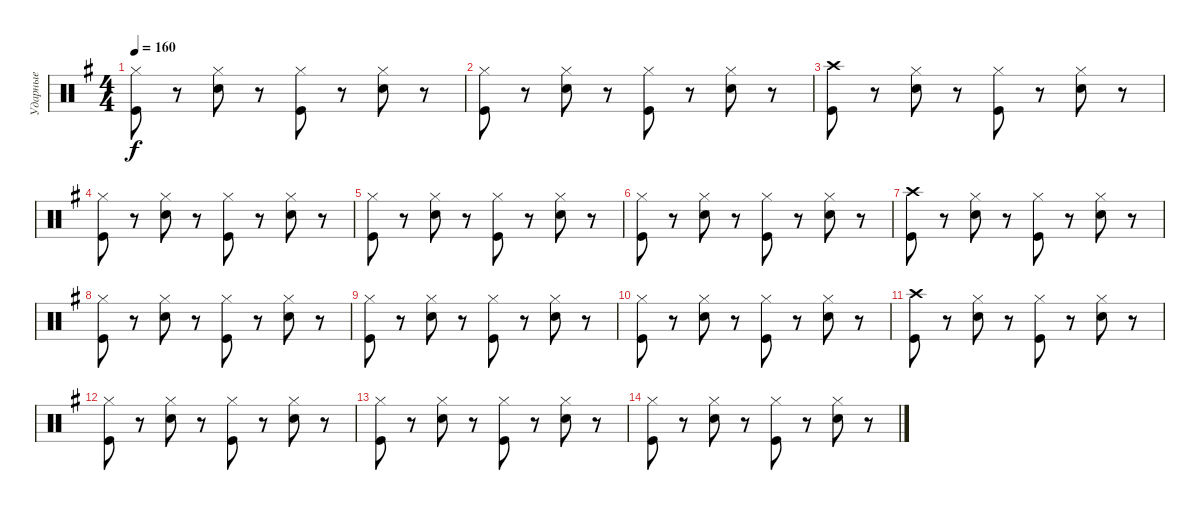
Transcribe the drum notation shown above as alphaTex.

\track ("Ударные" "Ударные") {instrument percussion}
\staff {score}
\articulation defaults
\ts (4 4)
\tempo 160
\clef neutral
\ks eminor
("Hi-Hat (closed)" "Kick (hit)").8{dy f} r.8 ("Hi-Hat (closed)" "Electric Snare (hit)").8 r.8 ("Hi-Hat (closed)" "Kick (hit)").8 r.8 ("Hi-Hat (closed)" "Electric Snare (hit)").8 r.8 |
("Hi-Hat (closed)" "Kick (hit)").8 r.8 ("Hi-Hat (closed)" "Electric Snare (hit)").8 r.8 ("Hi-Hat (closed)" "Kick (hit)").8 r.8 ("Hi-Hat (closed)" "Electric Snare (hit)").8 r.8 |
("Crash high (hit)" "Kick (hit)").8 r.8 ("Hi-Hat (closed)" "Electric Snare (hit)").8 r.8 ("Hi-Hat (closed)" "Kick (hit)").8 r.8 ("Hi-Hat (closed)" "Electric Snare (hit)").8 r.8 |
("Hi-Hat (closed)" "Kick (hit)").8 r.8 ("Hi-Hat (closed)" "Electric Snare (hit)").8 r.8 ("Hi-Hat (closed)" "Kick (hit)").8 r.8 ("Hi-Hat (closed)" "Electric Snare (hit)").8 r.8 |
("Hi-Hat (closed)" "Kick (hit)").8 r.8 ("Hi-Hat (closed)" "Electric Snare (hit)").8 r.8 ("Hi-Hat (closed)" "Kick (hit)").8 r.8 ("Hi-Hat (closed)" "Electric Snare (hit)").8 r.8 |
("Hi-Hat (closed)" "Kick (hit)").8 r.8 ("Hi-Hat (closed)" "Electric Snare (hit)").8 r.8 ("Hi-Hat (closed)" "Kick (hit)").8 r.8 ("Hi-Hat (closed)" "Electric Snare (hit)").8 r.8 |
("Crash high (hit)" "Kick (hit)").8 r.8 ("Hi-Hat (closed)" "Electric Snare (hit)").8 r.8 ("Hi-Hat (closed)" "Kick (hit)").8 r.8 ("Hi-Hat (closed)" "Electric Snare (hit)").8 r.8 |
("Hi-Hat (closed)" "Kick (hit)").8 r.8 ("Hi-Hat (closed)" "Electric Snare (hit)").8 r.8 ("Hi-Hat (closed)" "Kick (hit)").8 r.8 ("Hi-Hat (closed)" "Electric Snare (hit)").8 r.8 |
("Hi-Hat (closed)" "Kick (hit)").8 r.8 ("Hi-Hat (closed)" "Electric Snare (hit)").8 r.8 ("Hi-Hat (closed)" "Kick (hit)").8 r.8 ("Hi-Hat (closed)" "Electric Snare (hit)").8 r.8 |
("Hi-Hat (closed)" "Kick (hit)").8 r.8 ("Hi-Hat (closed)" "Electric Snare (hit)").8 r.8 ("Hi-Hat (closed)" "Kick (hit)").8 r.8 ("Hi-Hat (closed)" "Electric Snare (hit)").8 r.8 |
("Crash high (hit)" "Kick (hit)").8 r.8 ("Hi-Hat (closed)" "Electric Snare (hit)").8 r.8 ("Hi-Hat (closed)" "Kick (hit)").8 r.8 ("Hi-Hat (closed)" "Electric Snare (hit)").8 r.8 |
("Hi-Hat (closed)" "Kick (hit)").8 r.8 ("Hi-Hat (closed)" "Electric Snare (hit)").8 r.8 ("Hi-Hat (closed)" "Kick (hit)").8 r.8 ("Hi-Hat (closed)" "Electric Snare (hit)").8 r.8 |
("Hi-Hat (closed)" "Kick (hit)").8 r.8 ("Hi-Hat (closed)" "Electric Snare (hit)").8 r.8 ("Hi-Hat (closed)" "Kick (hit)").8 r.8 ("Hi-Hat (closed)" "Electric Snare (hit)").8 r.8 |
("Hi-Hat (closed)" "Kick (hit)").8 r.8 ("Hi-Hat (closed)" "Electric Snare (hit)").8 r.8 ("Hi-Hat (closed)" "Kick (hit)").8 r.8 ("Hi-Hat (closed)" "Electric Snare (hit)").8 r.8
